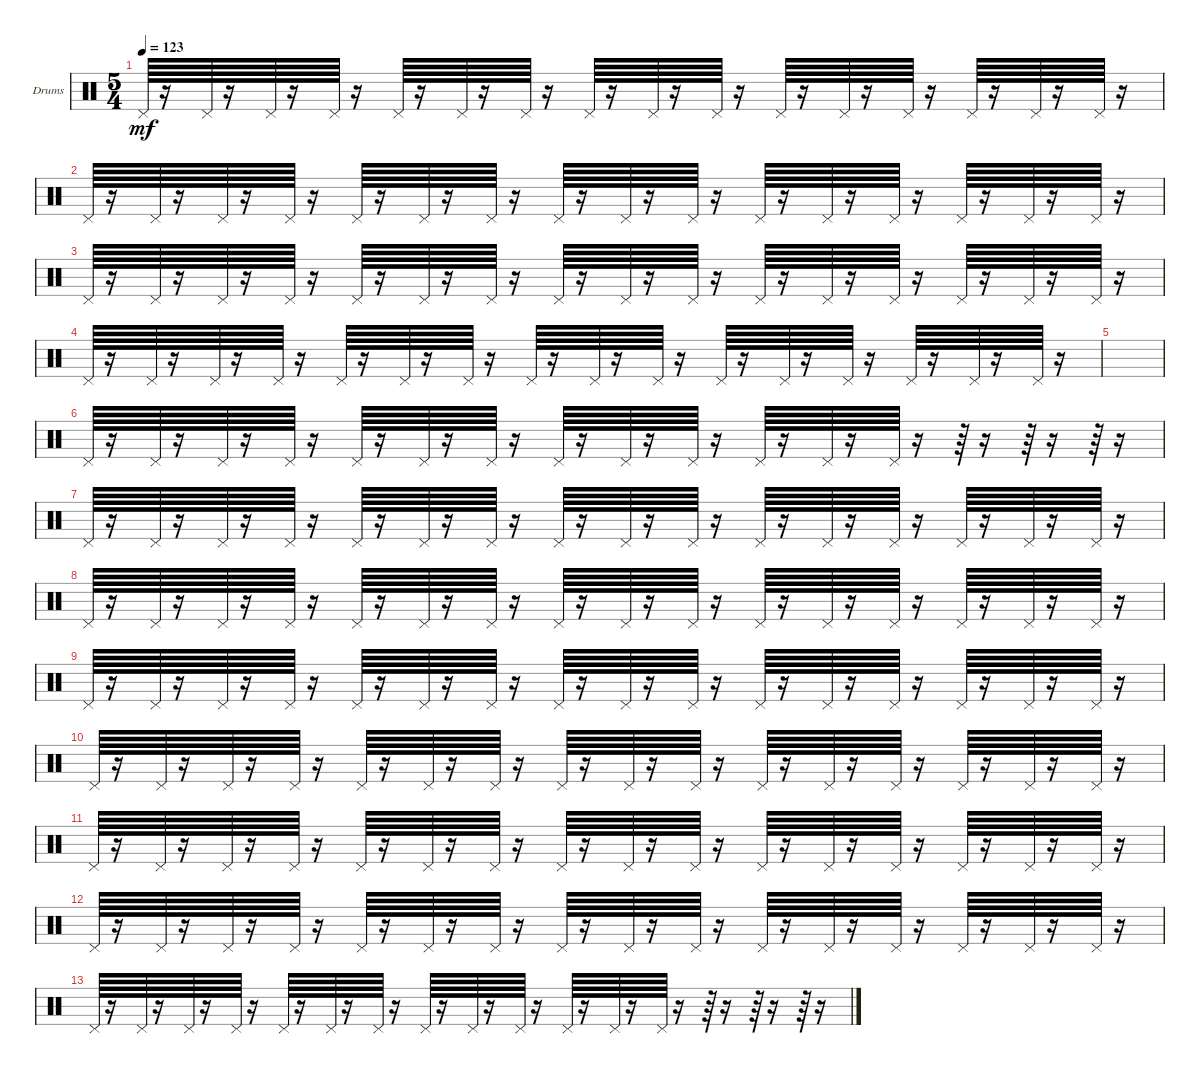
\defaultSystemsLayout 4
\bracketExtendMode groupsimilarinstruments
\firstSystemTrackNameOrientation horizontal
\otherSystemsTrackNameOrientation horizontal
\track ("Drumkit" "Drums") {instrument percussion}
\staff {score}
\articulation defaults
\ts (5 4)
\tempo 123
\clef neutral
\ks c "Pedal Hi-Hat (hit)".64{dy mf}
r.16 "Pedal Hi-Hat (hit)".64 r.16 "Pedal Hi-Hat (hit)".64 r.16 "Pedal Hi-Hat (hit)".64 r.16 "Pedal Hi-Hat (hit)".64 r.16 "Pedal Hi-Hat (hit)".64 r.16 "Pedal Hi-Hat (hit)".64 r.16 "Pedal Hi-Hat (hit)".64 r.16 "Pedal Hi-Hat (hit)".64 r.16 "Pedal Hi-Hat (hit)".64 r.16 "Pedal Hi-Hat (hit)".64 r.16 "Pedal Hi-Hat (hit)".64 r.16 "Pedal Hi-Hat (hit)".64 r.16 "Pedal Hi-Hat (hit)".64 r.16 "Pedal Hi-Hat (hit)".64 r.16 "Pedal Hi-Hat (hit)".64 r.16 |
"Pedal Hi-Hat (hit)".64 r.16 "Pedal Hi-Hat (hit)".64 r.16 "Pedal Hi-Hat (hit)".64 r.16 "Pedal Hi-Hat (hit)".64 r.16 "Pedal Hi-Hat (hit)".64 r.16 "Pedal Hi-Hat (hit)".64 r.16 "Pedal Hi-Hat (hit)".64 r.16 "Pedal Hi-Hat (hit)".64 r.16 "Pedal Hi-Hat (hit)".64 r.16 "Pedal Hi-Hat (hit)".64 r.16 "Pedal Hi-Hat (hit)".64 r.16 "Pedal Hi-Hat (hit)".64 r.16 "Pedal Hi-Hat (hit)".64 r.16 "Pedal Hi-Hat (hit)".64 r.16 "Pedal Hi-Hat (hit)".64 r.16 "Pedal Hi-Hat (hit)".64 r.16 |
"Pedal Hi-Hat (hit)".64 r.16 "Pedal Hi-Hat (hit)".64 r.16 "Pedal Hi-Hat (hit)".64 r.16 "Pedal Hi-Hat (hit)".64 r.16 "Pedal Hi-Hat (hit)".64 r.16 "Pedal Hi-Hat (hit)".64 r.16 "Pedal Hi-Hat (hit)".64 r.16 "Pedal Hi-Hat (hit)".64 r.16 "Pedal Hi-Hat (hit)".64 r.16 "Pedal Hi-Hat (hit)".64 r.16 "Pedal Hi-Hat (hit)".64 r.16 "Pedal Hi-Hat (hit)".64 r.16 "Pedal Hi-Hat (hit)".64 r.16 "Pedal Hi-Hat (hit)".64 r.16 "Pedal Hi-Hat (hit)".64 r.16 "Pedal Hi-Hat (hit)".64 r.16 |
"Pedal Hi-Hat (hit)".64 r.16 "Pedal Hi-Hat (hit)".64 r.16 "Pedal Hi-Hat (hit)".64 r.16 "Pedal Hi-Hat (hit)".64 r.16 "Pedal Hi-Hat (hit)".64 r.16 "Pedal Hi-Hat (hit)".64 r.16 "Pedal Hi-Hat (hit)".64 r.16 "Pedal Hi-Hat (hit)".64 r.16 "Pedal Hi-Hat (hit)".64 r.16 "Pedal Hi-Hat (hit)".64 r.16 "Pedal Hi-Hat (hit)".64 r.16 "Pedal Hi-Hat (hit)".64 r.16 "Pedal Hi-Hat (hit)".64 r.16 "Pedal Hi-Hat (hit)".64 r.16 "Pedal Hi-Hat (hit)".64 r.16 "Pedal Hi-Hat (hit)".64 r.16 |
|
"Pedal Hi-Hat (hit)".64 r.16 "Pedal Hi-Hat (hit)".64 r.16 "Pedal Hi-Hat (hit)".64 r.16 "Pedal Hi-Hat (hit)".64 r.16 "Pedal Hi-Hat (hit)".64 r.16 "Pedal Hi-Hat (hit)".64 r.16 "Pedal Hi-Hat (hit)".64 r.16 "Pedal Hi-Hat (hit)".64 r.16 "Pedal Hi-Hat (hit)".64 r.16 "Pedal Hi-Hat (hit)".64 r.16 "Pedal Hi-Hat (hit)".64 r.16 "Pedal Hi-Hat (hit)".64 r.16 "Pedal Hi-Hat (hit)".64 r.16 r.64 r.16 r.64 r.16 r.64 r.16 |
"Pedal Hi-Hat (hit)".64 r.16 "Pedal Hi-Hat (hit)".64 r.16 "Pedal Hi-Hat (hit)".64 r.16 "Pedal Hi-Hat (hit)".64 r.16 "Pedal Hi-Hat (hit)".64 r.16 "Pedal Hi-Hat (hit)".64 r.16 "Pedal Hi-Hat (hit)".64 r.16 "Pedal Hi-Hat (hit)".64 r.16 "Pedal Hi-Hat (hit)".64 r.16 "Pedal Hi-Hat (hit)".64 r.16 "Pedal Hi-Hat (hit)".64 r.16 "Pedal Hi-Hat (hit)".64 r.16 "Pedal Hi-Hat (hit)".64 r.16 "Pedal Hi-Hat (hit)".64 r.16 "Pedal Hi-Hat (hit)".64 r.16 "Pedal Hi-Hat (hit)".64 r.16 |
"Pedal Hi-Hat (hit)".64 r.16 "Pedal Hi-Hat (hit)".64 r.16 "Pedal Hi-Hat (hit)".64 r.16 "Pedal Hi-Hat (hit)".64 r.16 "Pedal Hi-Hat (hit)".64 r.16 "Pedal Hi-Hat (hit)".64 r.16 "Pedal Hi-Hat (hit)".64 r.16 "Pedal Hi-Hat (hit)".64 r.16 "Pedal Hi-Hat (hit)".64 r.16 "Pedal Hi-Hat (hit)".64 r.16 "Pedal Hi-Hat (hit)".64 r.16 "Pedal Hi-Hat (hit)".64 r.16 "Pedal Hi-Hat (hit)".64 r.16 "Pedal Hi-Hat (hit)".64 r.16 "Pedal Hi-Hat (hit)".64 r.16 "Pedal Hi-Hat (hit)".64 r.16 |
"Pedal Hi-Hat (hit)".64 r.16 "Pedal Hi-Hat (hit)".64 r.16 "Pedal Hi-Hat (hit)".64 r.16 "Pedal Hi-Hat (hit)".64 r.16 "Pedal Hi-Hat (hit)".64 r.16 "Pedal Hi-Hat (hit)".64 r.16 "Pedal Hi-Hat (hit)".64 r.16 "Pedal Hi-Hat (hit)".64 r.16 "Pedal Hi-Hat (hit)".64 r.16 "Pedal Hi-Hat (hit)".64 r.16 "Pedal Hi-Hat (hit)".64 r.16 "Pedal Hi-Hat (hit)".64 r.16 "Pedal Hi-Hat (hit)".64 r.16 "Pedal Hi-Hat (hit)".64 r.16 "Pedal Hi-Hat (hit)".64 r.16 "Pedal Hi-Hat (hit)".64 r.16 |
"Pedal Hi-Hat (hit)".64 r.16 "Pedal Hi-Hat (hit)".64 r.16 "Pedal Hi-Hat (hit)".64 r.16 "Pedal Hi-Hat (hit)".64 r.16 "Pedal Hi-Hat (hit)".64 r.16 "Pedal Hi-Hat (hit)".64 r.16 "Pedal Hi-Hat (hit)".64 r.16 "Pedal Hi-Hat (hit)".64 r.16 "Pedal Hi-Hat (hit)".64 r.16 "Pedal Hi-Hat (hit)".64 r.16 "Pedal Hi-Hat (hit)".64 r.16 "Pedal Hi-Hat (hit)".64 r.16 "Pedal Hi-Hat (hit)".64 r.16 "Pedal Hi-Hat (hit)".64 r.16 "Pedal Hi-Hat (hit)".64 r.16 "Pedal Hi-Hat (hit)".64 r.16 |
"Pedal Hi-Hat (hit)".64 r.16 "Pedal Hi-Hat (hit)".64 r.16 "Pedal Hi-Hat (hit)".64 r.16 "Pedal Hi-Hat (hit)".64 r.16 "Pedal Hi-Hat (hit)".64 r.16 "Pedal Hi-Hat (hit)".64 r.16 "Pedal Hi-Hat (hit)".64 r.16 "Pedal Hi-Hat (hit)".64 r.16 "Pedal Hi-Hat (hit)".64 r.16 "Pedal Hi-Hat (hit)".64 r.16 "Pedal Hi-Hat (hit)".64 r.16 "Pedal Hi-Hat (hit)".64 r.16 "Pedal Hi-Hat (hit)".64 r.16 "Pedal Hi-Hat (hit)".64 r.16 "Pedal Hi-Hat (hit)".64 r.16 "Pedal Hi-Hat (hit)".64 r.16 |
"Pedal Hi-Hat (hit)".64 r.16 "Pedal Hi-Hat (hit)".64 r.16 "Pedal Hi-Hat (hit)".64 r.16 "Pedal Hi-Hat (hit)".64 r.16 "Pedal Hi-Hat (hit)".64 r.16 "Pedal Hi-Hat (hit)".64 r.16 "Pedal Hi-Hat (hit)".64 r.16 "Pedal Hi-Hat (hit)".64 r.16 "Pedal Hi-Hat (hit)".64 r.16 "Pedal Hi-Hat (hit)".64 r.16 "Pedal Hi-Hat (hit)".64 r.16 "Pedal Hi-Hat (hit)".64 r.16 "Pedal Hi-Hat (hit)".64 r.16 "Pedal Hi-Hat (hit)".64 r.16 "Pedal Hi-Hat (hit)".64 r.16 "Pedal Hi-Hat (hit)".64 r.16 |
"Pedal Hi-Hat (hit)".64 r.16 "Pedal Hi-Hat (hit)".64 r.16 "Pedal Hi-Hat (hit)".64 r.16 "Pedal Hi-Hat (hit)".64 r.16 "Pedal Hi-Hat (hit)".64 r.16 "Pedal Hi-Hat (hit)".64 r.16 "Pedal Hi-Hat (hit)".64 r.16 "Pedal Hi-Hat (hit)".64 r.16 "Pedal Hi-Hat (hit)".64 r.16 "Pedal Hi-Hat (hit)".64 r.16 "Pedal Hi-Hat (hit)".64 r.16 "Pedal Hi-Hat (hit)".64 r.16 "Pedal Hi-Hat (hit)".64 r.16 r.64 r.16 r.64 r.16 r.64 r.16
